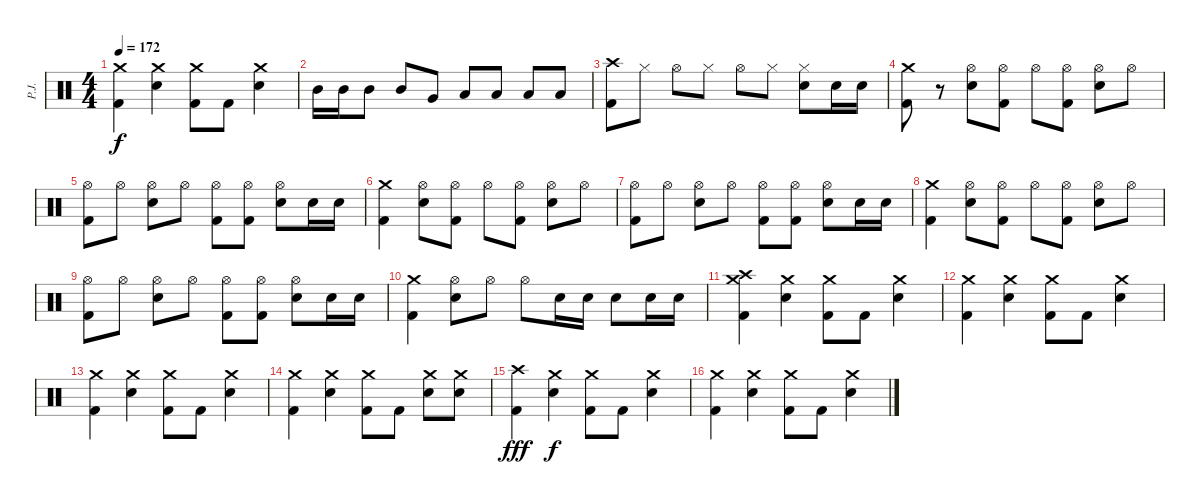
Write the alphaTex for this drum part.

\track ("P.J." "P.J.") {instrument percussion}
\staff {score}
\articulation defaults
\ts (4 4)
\tempo 172
\clef neutral
\ks c
("Crash medium (hit)" "Kick (hit) 2").4{dy f} ("Crash medium (hit)" "Electric Snare (hit)").4 ("Crash medium (hit)" "Kick (hit) 2").8 "Kick (hit) 2".8 ("Crash medium (hit)" "Electric Snare (hit)").4 |
"Mid Tom (hit)".16 "Mid Tom (hit)".16 "Mid Tom (hit)".8 "Mid Tom (hit)".8 "Very Low Tom (hit)".8 "Low Floor Tom (hit)".8 "Low Floor Tom (hit)".8 "Low Floor Tom (hit)".8 "Low Floor Tom (hit)".8 |
("Crash high (hit)" "Kick (hit) 2").8 "Hi-Hat (closed)".8 "Hi-Hat (open)".8 "Hi-Hat (closed)".8 "Hi-Hat (open)".8 "Hi-Hat (closed)".8 ("Hi-Hat (closed)" "Electric Snare (hit)").8 "Electric Snare (hit)".16 "Electric Snare (hit)".16 |
("Crash medium (hit)" "Kick (hit) 2").8 r.8 ("Hi-Hat (open)" "Electric Snare (hit)").8 ("Hi-Hat (open)" "Kick (hit) 2").8 "Hi-Hat (open)".8 ("Hi-Hat (open)" "Kick (hit) 2").8 ("Hi-Hat (open)" "Electric Snare (hit)").8 "Hi-Hat (open)".8 |
("Hi-Hat (open)" "Kick (hit) 2").8 "Hi-Hat (open)".8 ("Hi-Hat (open)" "Electric Snare (hit)").8 "Hi-Hat (open)".8 ("Hi-Hat (open)" "Kick (hit) 2").8 ("Hi-Hat (open)" "Kick (hit) 2").8 ("Hi-Hat (open)" "Electric Snare (hit)").8 "Electric Snare (hit)".16 "Electric Snare (hit)".16 |
("Crash medium (hit)" "Kick (hit) 2").4 ("Hi-Hat (open)" "Electric Snare (hit)").8 ("Hi-Hat (open)" "Kick (hit) 2").8 "Hi-Hat (open)".8 ("Hi-Hat (open)" "Kick (hit) 2").8 ("Hi-Hat (open)" "Electric Snare (hit)").8 "Hi-Hat (open)".8 |
("Hi-Hat (open)" "Kick (hit) 2").8 "Hi-Hat (open)".8 ("Hi-Hat (open)" "Electric Snare (hit)").8 "Hi-Hat (open)".8 ("Hi-Hat (open)" "Kick (hit) 2").8 ("Hi-Hat (open)" "Kick (hit) 2").8 ("Hi-Hat (open)" "Electric Snare (hit)").8 "Electric Snare (hit)".16 "Electric Snare (hit)".16 |
("Crash medium (hit)" "Kick (hit) 2").4 ("Hi-Hat (open)" "Electric Snare (hit)").8 ("Hi-Hat (open)" "Kick (hit) 2").8 "Hi-Hat (open)".8 ("Hi-Hat (open)" "Kick (hit) 2").8 ("Hi-Hat (open)" "Electric Snare (hit)").8 "Hi-Hat (open)".8 |
("Hi-Hat (open)" "Kick (hit) 2").8 "Hi-Hat (open)".8 ("Hi-Hat (open)" "Electric Snare (hit)").8 "Hi-Hat (open)".8 ("Hi-Hat (open)" "Kick (hit) 2").8 ("Hi-Hat (open)" "Kick (hit) 2").8 ("Hi-Hat (open)" "Electric Snare (hit)").8 "Electric Snare (hit)".16 "Electric Snare (hit)".16 |
("Crash medium (hit)" "Kick (hit) 2").4 ("Hi-Hat (open)" "Electric Snare (hit)").8 "Hi-Hat (open)".8 "Hi-Hat (open)".8 "Electric Snare (hit)".16 "Electric Snare (hit)".16 "Electric Snare (hit)".8 "Electric Snare (hit)".16 "Electric Snare (hit)".16 |
("Crash high (hit)" "Crash medium (hit)" "Kick (hit) 2").4 ("Crash medium (hit)" "Electric Snare (hit)").4 ("Crash medium (hit)" "Kick (hit) 2").8 "Kick (hit) 2".8 ("Crash medium (hit)" "Electric Snare (hit)").4 |
("Crash medium (hit)" "Kick (hit) 2").4 ("Crash medium (hit)" "Electric Snare (hit)").4 ("Crash medium (hit)" "Kick (hit) 2").8 "Kick (hit) 2".8 ("Crash medium (hit)" "Electric Snare (hit)").4 |
("Crash medium (hit)" "Kick (hit) 2").4 ("Crash medium (hit)" "Electric Snare (hit)").4 ("Crash medium (hit)" "Kick (hit) 2").8 "Kick (hit) 2".8 ("Crash medium (hit)" "Electric Snare (hit)").4 |
("Crash medium (hit)" "Kick (hit) 2").4 ("Crash medium (hit)" "Electric Snare (hit)").4 ("Crash medium (hit)" "Kick (hit) 2").8 "Kick (hit) 2".8 ("Crash medium (hit)" "Electric Snare (hit)").8 ("Crash medium (hit)" "Electric Snare (hit)").8 |
("Crash high (hit)" "Kick (hit) 2").4{dy fff} ("Crash medium (hit)" "Electric Snare (hit)").4{dy f} ("Crash medium (hit)" "Kick (hit) 2").8 "Kick (hit) 2".8 ("Crash medium (hit)" "Electric Snare (hit)").4 |
("Crash medium (hit)" "Kick (hit) 2").4 ("Crash medium (hit)" "Electric Snare (hit)").4 ("Crash medium (hit)" "Kick (hit) 2").8 "Kick (hit) 2".8 ("Crash medium (hit)" "Electric Snare (hit)").4
